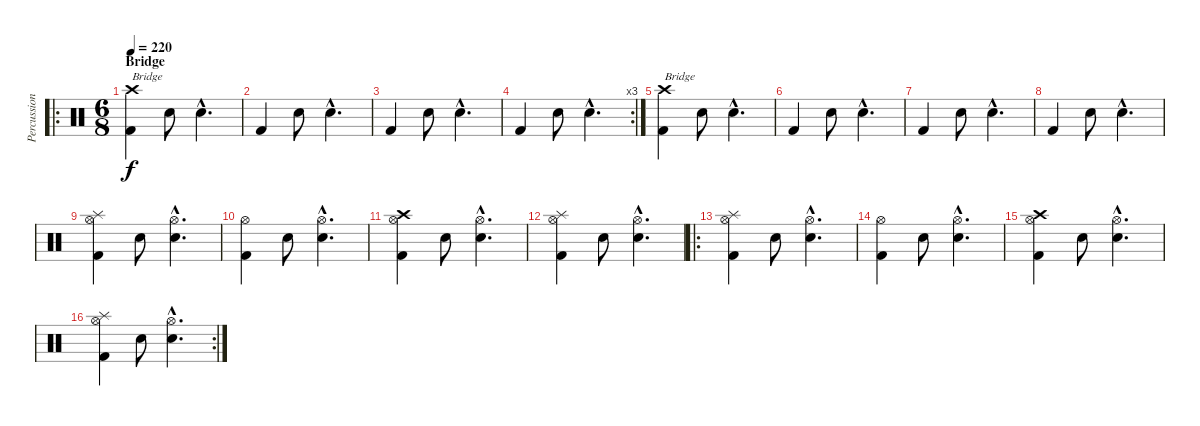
\track ("Percussion" "Percussion") {instrument percussion}
\staff {score}
\articulation defaults
\ro
\ts (6 8)
\section ("" "Bridge")
\tempo 220
\clef neutral
\ks c
("Crash high (hit)" "Kick (hit) 2").4{txt "Bridge" dy f volume 11} "Snare (hit) 2".8 "Electric Snare (hit)"{hac}.4{d} |
"Kick (hit) 2".4 "Snare (hit) 2".8 "Electric Snare (hit)"{hac}.4{d} |
"Kick (hit) 2".4 "Snare (hit) 2".8 "Electric Snare (hit)"{hac}.4{d} |
\rc 3 "Kick (hit) 2".4 "Snare (hit) 2".8 "Electric Snare (hit)"{hac}.4{d}
|
("Crash high (hit)" "Kick (hit) 2").4{txt "Bridge" volume 11} "Snare (hit) 2".8 "Electric Snare (hit)"{hac}.4{d} |
"Kick (hit) 2".4 "Snare (hit) 2".8 "Electric Snare (hit)"{hac}.4{d} |
"Kick (hit) 2".4 "Snare (hit) 2".8 "Electric Snare (hit)"{hac}.4{d} |
"Kick (hit) 2".4 "Snare (hit) 2".8 "Electric Snare (hit)"{hac}.4{d} |
("Hi-Hat (open)" "Splash (hit)" "Kick (hit) 2").4 "Snare (hit) 2".8 ("Hi-Hat (open)"{hac} "Electric Snare (hit)"{hac}).4{d} |
("Hi-Hat (open)" "Kick (hit) 2").4 "Snare (hit) 2".8 ("Hi-Hat (open)"{hac} "Electric Snare (hit)"{hac}).4{d} |
("Hi-Hat (open)" "Crash high (hit)" "Kick (hit) 2").4 "Snare (hit) 2".8 ("Hi-Hat (open)"{hac} "Electric Snare (hit)"{hac}).4{d} |
("Hi-Hat (open)" "Splash (hit)" "Kick (hit) 2").4 "Snare (hit) 2".8 ("Hi-Hat (open)"{hac} "Electric Snare (hit)"{hac}).4{d} |
\ro
("Hi-Hat (open)" "Splash (hit)" "Kick (hit) 2").4 "Snare (hit) 2".8 ("Hi-Hat (open)"{hac} "Electric Snare (hit)"{hac}).4{d} |
("Hi-Hat (open)" "Kick (hit) 2").4 "Snare (hit) 2".8 ("Hi-Hat (open)"{hac} "Electric Snare (hit)"{hac}).4{d} |
("Hi-Hat (open)" "Crash high (hit)" "Kick (hit) 2").4 "Snare (hit) 2".8 ("Hi-Hat (open)"{hac} "Electric Snare (hit)"{hac}).4{d} |
\rc 2
("Hi-Hat (open)" "Splash (hit)" "Kick (hit) 2").4 "Snare (hit) 2".8 ("Hi-Hat (open)"{hac} "Electric Snare (hit)"{hac}).4{d}
